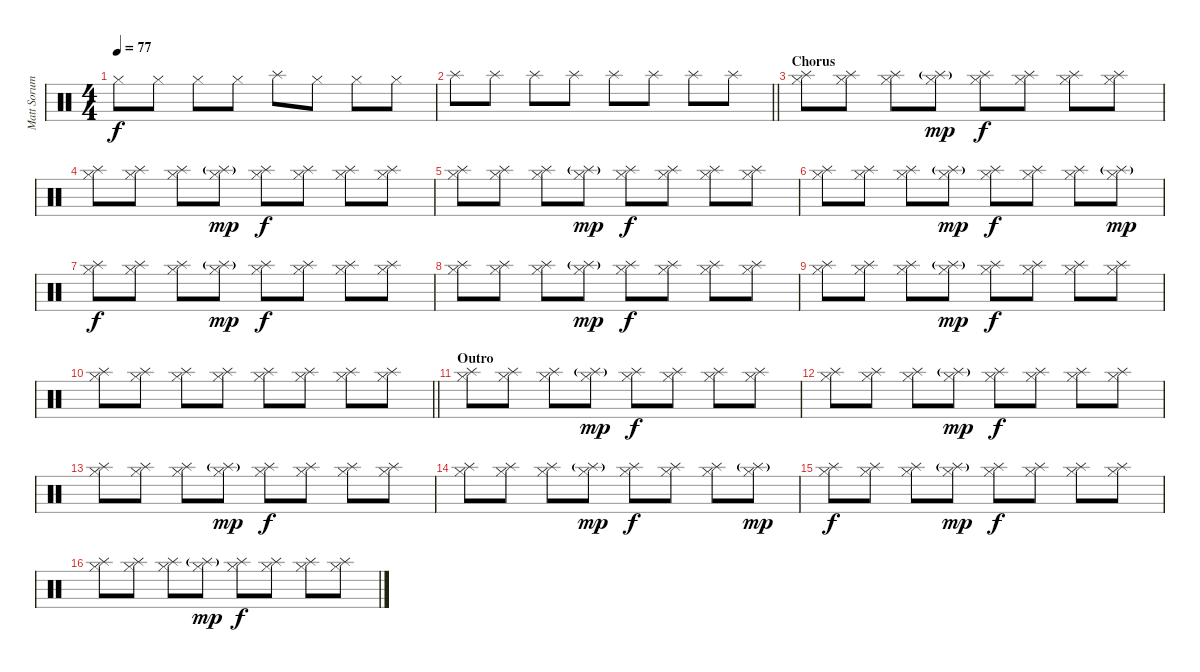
\track ("Matt Sorum (Drums)" "Matt Sorum") {instrument percussion}
\staff {score}
\articulation defaults
\ts (4 4)
\tempo 77
\clef neutral
\ks c "Hi-Hat (closed)".8{dy f} "Hi-Hat (closed)".8 "Hi-Hat (closed)".8 "Hi-Hat (closed)".8 "Splash (hit)".8 "Hi-Hat (closed)".8 "Hi-Hat (closed)".8 "Hi-Hat (closed)".8
|
\barLineRight lightlight "Splash (hit)".8{volume 14} "Splash (hit)".8 "Splash (hit)".8 "Splash (hit)".8{volume 16} "Splash (hit)".8 "Splash (hit)".8 "Splash (hit)".8 "Splash (hit)".8
|
\section ("" "Chorus")
("Hi-Hat (closed)" "Splash (hit)").8{volume 14} ("Hi-Hat (closed)" "Splash (hit)").8 ("Hi-Hat (closed)" "Splash (hit)").8 ("Hi-Hat (closed)" "Splash (hit)"{g}).8{dy mp} ("Hi-Hat (closed)" "Splash (hit)").8{dy f} ("Hi-Hat (closed)" "Splash (hit)").8 ("Hi-Hat (closed)" "Splash (hit)").8 ("Hi-Hat (closed)" "Splash (hit)").8 |
("Hi-Hat (closed)" "Splash (hit)").8 ("Hi-Hat (closed)" "Splash (hit)").8 ("Hi-Hat (closed)" "Splash (hit)").8 ("Hi-Hat (closed)" "Splash (hit)"{g}).8{dy mp} ("Hi-Hat (closed)" "Splash (hit)").8{dy f} ("Hi-Hat (closed)" "Splash (hit)").8 ("Hi-Hat (closed)" "Splash (hit)").8 ("Hi-Hat (closed)" "Splash (hit)").8 |
("Hi-Hat (closed)" "Splash (hit)").8 ("Hi-Hat (closed)" "Splash (hit)").8 ("Hi-Hat (closed)" "Splash (hit)").8 ("Hi-Hat (closed)" "Splash (hit)"{g}).8{dy mp} ("Hi-Hat (closed)" "Splash (hit)").8{dy f} ("Hi-Hat (closed)" "Splash (hit)").8 ("Hi-Hat (closed)" "Splash (hit)").8 ("Hi-Hat (closed)" "Splash (hit)").8 |
("Hi-Hat (closed)" "Splash (hit)").8 ("Hi-Hat (closed)" "Splash (hit)").8 ("Hi-Hat (closed)" "Splash (hit)").8 ("Hi-Hat (closed)" "Splash (hit)"{g}).8{dy mp} ("Hi-Hat (closed)" "Splash (hit)").8{dy f} ("Hi-Hat (closed)" "Splash (hit)").8 ("Hi-Hat (closed)" "Splash (hit)").8 ("Hi-Hat (closed)" "Splash (hit)"{g}).8{dy mp} |
("Hi-Hat (closed)" "Splash (hit)").8{dy f} ("Hi-Hat (closed)" "Splash (hit)").8 ("Hi-Hat (closed)" "Splash (hit)").8 ("Hi-Hat (closed)" "Splash (hit)"{g}).8{dy mp} ("Hi-Hat (closed)" "Splash (hit)").8{dy f} ("Hi-Hat (closed)" "Splash (hit)").8 ("Hi-Hat (closed)" "Splash (hit)").8 ("Hi-Hat (closed)" "Splash (hit)").8 |
("Hi-Hat (closed)" "Splash (hit)").8 ("Hi-Hat (closed)" "Splash (hit)").8 ("Hi-Hat (closed)" "Splash (hit)").8 ("Hi-Hat (closed)" "Splash (hit)"{g}).8{dy mp} ("Hi-Hat (closed)" "Splash (hit)").8{dy f} ("Hi-Hat (closed)" "Splash (hit)").8 ("Hi-Hat (closed)" "Splash (hit)").8 ("Hi-Hat (closed)" "Splash (hit)").8 |
("Hi-Hat (closed)" "Splash (hit)").8 ("Hi-Hat (closed)" "Splash (hit)").8 ("Hi-Hat (closed)" "Splash (hit)").8 ("Hi-Hat (closed)" "Splash (hit)"{g}).8{dy mp} ("Hi-Hat (closed)" "Splash (hit)").8{dy f} ("Hi-Hat (closed)" "Splash (hit)").8 ("Hi-Hat (closed)" "Splash (hit)").8 ("Hi-Hat (closed)" "Splash (hit)").8 |
\barLineRight lightlight
("Hi-Hat (closed)" "Splash (hit)").8 ("Hi-Hat (closed)" "Splash (hit)").8 ("Hi-Hat (closed)" "Splash (hit)").8 ("Hi-Hat (closed)" "Splash (hit)").8 ("Hi-Hat (closed)" "Splash (hit)").8 ("Hi-Hat (closed)" "Splash (hit)").8 ("Hi-Hat (closed)" "Splash (hit)").8 ("Hi-Hat (closed)" "Splash (hit)").8 |
\section ("" "Outro")
("Hi-Hat (closed)" "Splash (hit)").8 ("Hi-Hat (closed)" "Splash (hit)").8 ("Hi-Hat (closed)" "Splash (hit)").8 ("Hi-Hat (closed)" "Splash (hit)"{g}).8{dy mp} ("Hi-Hat (closed)" "Splash (hit)").8{dy f} ("Hi-Hat (closed)" "Splash (hit)").8 ("Hi-Hat (closed)" "Splash (hit)").8 ("Hi-Hat (closed)" "Splash (hit)").8 |
("Hi-Hat (closed)" "Splash (hit)").8 ("Hi-Hat (closed)" "Splash (hit)").8 ("Hi-Hat (closed)" "Splash (hit)").8 ("Hi-Hat (closed)" "Splash (hit)"{g}).8{dy mp} ("Hi-Hat (closed)" "Splash (hit)").8{dy f} ("Hi-Hat (closed)" "Splash (hit)").8 ("Hi-Hat (closed)" "Splash (hit)").8 ("Hi-Hat (closed)" "Splash (hit)").8 |
("Hi-Hat (closed)" "Splash (hit)").8 ("Hi-Hat (closed)" "Splash (hit)").8 ("Hi-Hat (closed)" "Splash (hit)").8 ("Hi-Hat (closed)" "Splash (hit)"{g}).8{dy mp} ("Hi-Hat (closed)" "Splash (hit)").8{dy f} ("Hi-Hat (closed)" "Splash (hit)").8 ("Hi-Hat (closed)" "Splash (hit)").8 ("Hi-Hat (closed)" "Splash (hit)").8 |
("Hi-Hat (closed)" "Splash (hit)").8 ("Hi-Hat (closed)" "Splash (hit)").8 ("Hi-Hat (closed)" "Splash (hit)").8 ("Hi-Hat (closed)" "Splash (hit)"{g}).8{dy mp} ("Hi-Hat (closed)" "Splash (hit)").8{dy f} ("Hi-Hat (closed)" "Splash (hit)").8 ("Hi-Hat (closed)" "Splash (hit)").8 ("Hi-Hat (closed)" "Splash (hit)"{g}).8{dy mp} |
("Hi-Hat (closed)" "Splash (hit)").8{dy f} ("Hi-Hat (closed)" "Splash (hit)").8 ("Hi-Hat (closed)" "Splash (hit)").8 ("Hi-Hat (closed)" "Splash (hit)"{g}).8{dy mp} ("Hi-Hat (closed)" "Splash (hit)").8{dy f} ("Hi-Hat (closed)" "Splash (hit)").8 ("Hi-Hat (closed)" "Splash (hit)").8 ("Hi-Hat (closed)" "Splash (hit)").8 |
("Hi-Hat (closed)" "Splash (hit)").8 ("Hi-Hat (closed)" "Splash (hit)").8 ("Hi-Hat (closed)" "Splash (hit)").8 ("Hi-Hat (closed)" "Splash (hit)"{g}).8{dy mp} ("Hi-Hat (closed)" "Splash (hit)").8{dy f} ("Hi-Hat (closed)" "Splash (hit)").8 ("Hi-Hat (closed)" "Splash (hit)").8 ("Hi-Hat (closed)" "Splash (hit)").8
